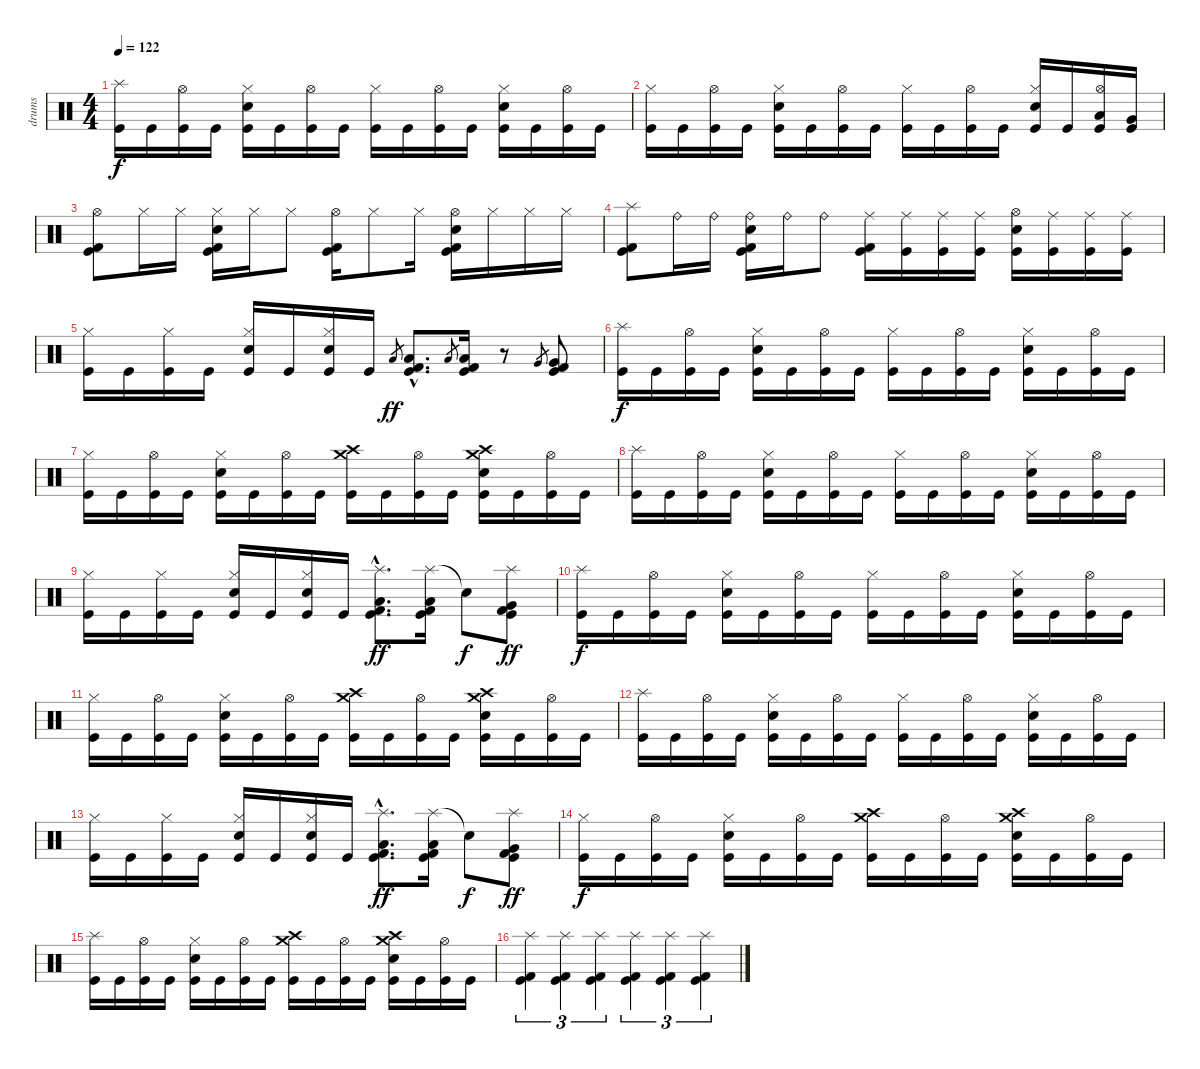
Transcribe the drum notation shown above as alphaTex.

\track ("drums" "drums") {instrument percussion}
\staff {score}
\articulation defaults
\ts (4 4)
\tempo 122
\clef neutral
\ks c
("Splash (hit)" "Kick (hit)").16{dy f} "Kick (hit)".16 ("Hi-Hat (open)" "Kick (hit)").16 "Kick (hit)".16 ("Hi-Hat (closed)" "Electric Snare (hit)" "Kick (hit)").16 "Kick (hit)".16 ("Hi-Hat (open)" "Kick (hit)").16 "Kick (hit)".16 ("Hi-Hat (closed)" "Kick (hit)").16 "Kick (hit)".16 ("Hi-Hat (open)" "Kick (hit)").16 "Kick (hit)".16 ("Hi-Hat (closed)" "Electric Snare (hit)" "Kick (hit)").16 "Kick (hit)".16 ("Hi-Hat (open)" "Kick (hit)").16 "Kick (hit)".16 |
("Hi-Hat (closed)" "Kick (hit)").16 "Kick (hit)".16 ("Hi-Hat (open)" "Kick (hit)").16 "Kick (hit)".16 ("Hi-Hat (closed)" "Electric Snare (hit)" "Kick (hit)").16 "Kick (hit)".16 ("Hi-Hat (open)" "Kick (hit)").16 "Kick (hit)".16 ("Hi-Hat (closed)" "Kick (hit)").16 "Kick (hit)".16 ("Hi-Hat (open)" "Kick (hit)").16 "Kick (hit)".16 ("Hi-Hat (closed)" "Electric Snare (hit)" "Kick (hit)").16 "Kick (hit)".16 ("Hi-Hat (open)" "Low Floor Tom (hit)" "Kick (hit)").16 ("Very Low Tom (hit)" "Kick (hit)").16 |
("Hi-Hat (open)" "Kick (hit) 2" "Kick (hit)").8 "Hi-Hat (closed)".16 "Hi-Hat (closed)".16 ("Hi-Hat (closed)" "Electric Snare (hit)" "Kick (hit) 2" "Kick (hit)").16 "Hi-Hat (closed)".16 "Hi-Hat (closed)".8 ("Hi-Hat (open)" "Kick (hit) 2" "Kick (hit)").16 "Hi-Hat (closed)".8 "Hi-Hat (closed)".16 ("Hi-Hat (open)" "Electric Snare (hit)" "Kick (hit) 2" "Kick (hit)").16 "Hi-Hat (closed)".16 "Hi-Hat (closed)".16 "Hi-Hat (closed)".16 |
("Splash (hit)" "Kick (hit) 2" "Kick (hit)").8 "Ride (bell)".16 "Ride (bell)".16 ("Ride (bell)" "Electric Snare (hit)" "Kick (hit) 2" "Kick (hit)").16 "Ride (bell)".16 "Ride (bell)".8 ("Ride (middle)" "Kick (hit) 2" "Kick (hit)").16 ("Ride (middle)" "Kick (hit)").16 ("Ride (middle)" "Kick (hit)").16 ("Ride (middle)" "Kick (hit)").16 ("Hi-Hat (open)" "Electric Snare (hit)" "Kick (hit)").16 ("Ride (middle)" "Kick (hit)").16 ("Ride (middle)" "Kick (hit)").16 ("Ride (middle)" "Kick (hit)").16 |
("Hi-Hat (closed)" "Kick (hit)").16 "Kick (hit)".16 ("Hi-Hat (closed)" "Kick (hit)").16 "Kick (hit)".16 ("Hi-Hat (closed)" "Electric Snare (hit)" "Kick (hit)").16 "Kick (hit)".16 ("Hi-Hat (closed)" "Electric Snare (hit)" "Kick (hit)").16 "Kick (hit)".16 "Low Tom (hit)".8{gr dy ff} ("Low Tom (hit)"{hac} "Kick (hit) 2"{hac} "Kick (hit)"{hac}).8{d} "Low Floor Tom (hit)".8{gr} ("Low Floor Tom (hit)" "Kick (hit) 2" "Kick (hit)").16 r.8 "Very Low Tom (hit)".8{gr} ("Very Low Tom (hit)" "Kick (hit) 2" "Kick (hit)").8 |
("Splash (hit)" "Kick (hit)").16{dy f} "Kick (hit)".16 ("Hi-Hat (open)" "Kick (hit)").16 "Kick (hit)".16 ("Hi-Hat (closed)" "Electric Snare (hit)" "Kick (hit)").16 "Kick (hit)".16 ("Hi-Hat (open)" "Kick (hit)").16 "Kick (hit)".16 ("Hi-Hat (closed)" "Kick (hit)").16 "Kick (hit)".16 ("Hi-Hat (open)" "Kick (hit)").16 "Kick (hit)".16 ("Hi-Hat (closed)" "Electric Snare (hit)" "Kick (hit)").16 "Kick (hit)".16 ("Hi-Hat (open)" "Kick (hit)").16 "Kick (hit)".16 |
("Hi-Hat (closed)" "Kick (hit)").16 "Kick (hit)".16 ("Hi-Hat (open)" "Kick (hit)").16 "Kick (hit)".16 ("Hi-Hat (closed)" "Electric Snare (hit)" "Kick (hit)").16 "Kick (hit)".16 ("Hi-Hat (open)" "Kick (hit)").16 "Kick (hit)".16 ("Crash medium (hit)" "Crash high (hit)" "Kick (hit)").16 "Kick (hit)".16 ("Hi-Hat (open)" "Kick (hit)").16 "Kick (hit)".16 ("Crash high (hit)" "Crash medium (hit)" "Electric Snare (hit)" "Kick (hit)").16 "Kick (hit)".16 ("Hi-Hat (open)" "Kick (hit)").16 "Kick (hit)".16 |
("Splash (hit)" "Kick (hit)").16 "Kick (hit)".16 ("Hi-Hat (open)" "Kick (hit)").16 "Kick (hit)".16 ("Hi-Hat (closed)" "Electric Snare (hit)" "Kick (hit)").16 "Kick (hit)".16 ("Hi-Hat (open)" "Kick (hit)").16 "Kick (hit)".16 ("Hi-Hat (closed)" "Kick (hit)").16 "Kick (hit)".16 ("Hi-Hat (open)" "Kick (hit)").16 "Kick (hit)".16 ("Hi-Hat (closed)" "Electric Snare (hit)" "Kick (hit)").16 "Kick (hit)".16 ("Hi-Hat (open)" "Kick (hit)").16 "Kick (hit)".16 |
("Hi-Hat (closed)" "Kick (hit)").16 "Kick (hit)".16 ("Hi-Hat (closed)" "Kick (hit)").16 "Kick (hit)".16 ("Hi-Hat (closed)" "Electric Snare (hit)" "Kick (hit)").16 "Kick (hit)".16 ("Hi-Hat (closed)" "Electric Snare (hit)" "Kick (hit)").16 "Kick (hit)".16 ("Splash (hit)"{hac} "Low Tom (hit)"{hac} "Kick (hit) 2"{hac} "Kick (hit)"{hac}).8{d dy ff} ("Splash (hit)" "Low Floor Tom (hit)" "Kick (hit) 2" "Kick (hit)").16 "Snare (hit)"{t}.8{dy f} ("Splash (hit)" "Very Low Tom (hit)" "Kick (hit) 2" "Kick (hit)").8{dy ff} |
("Splash (hit)" "Kick (hit)").16{dy f} "Kick (hit)".16 ("Hi-Hat (open)" "Kick (hit)").16 "Kick (hit)".16 ("Hi-Hat (closed)" "Electric Snare (hit)" "Kick (hit)").16 "Kick (hit)".16 ("Hi-Hat (open)" "Kick (hit)").16 "Kick (hit)".16 ("Hi-Hat (closed)" "Kick (hit)").16 "Kick (hit)".16 ("Hi-Hat (open)" "Kick (hit)").16 "Kick (hit)".16 ("Hi-Hat (closed)" "Electric Snare (hit)" "Kick (hit)").16 "Kick (hit)".16 ("Hi-Hat (open)" "Kick (hit)").16 "Kick (hit)".16 |
("Hi-Hat (closed)" "Kick (hit)").16 "Kick (hit)".16 ("Hi-Hat (open)" "Kick (hit)").16 "Kick (hit)".16 ("Hi-Hat (closed)" "Electric Snare (hit)" "Kick (hit)").16 "Kick (hit)".16 ("Hi-Hat (open)" "Kick (hit)").16 "Kick (hit)".16 ("Crash medium (hit)" "Crash high (hit)" "Kick (hit)").16 "Kick (hit)".16 ("Hi-Hat (open)" "Kick (hit)").16 "Kick (hit)".16 ("Crash high (hit)" "Crash medium (hit)" "Electric Snare (hit)" "Kick (hit)").16 "Kick (hit)".16 ("Hi-Hat (open)" "Kick (hit)").16 "Kick (hit)".16 |
("Splash (hit)" "Kick (hit)").16 "Kick (hit)".16 ("Hi-Hat (open)" "Kick (hit)").16 "Kick (hit)".16 ("Hi-Hat (closed)" "Electric Snare (hit)" "Kick (hit)").16 "Kick (hit)".16 ("Hi-Hat (open)" "Kick (hit)").16 "Kick (hit)".16 ("Hi-Hat (closed)" "Kick (hit)").16 "Kick (hit)".16 ("Hi-Hat (open)" "Kick (hit)").16 "Kick (hit)".16 ("Hi-Hat (closed)" "Electric Snare (hit)" "Kick (hit)").16 "Kick (hit)".16 ("Hi-Hat (open)" "Kick (hit)").16 "Kick (hit)".16 |
("Hi-Hat (closed)" "Kick (hit)").16 "Kick (hit)".16 ("Hi-Hat (closed)" "Kick (hit)").16 "Kick (hit)".16 ("Hi-Hat (closed)" "Electric Snare (hit)" "Kick (hit)").16 "Kick (hit)".16 ("Hi-Hat (closed)" "Electric Snare (hit)" "Kick (hit)").16 "Kick (hit)".16 ("Splash (hit)"{hac} "Low Tom (hit)"{hac} "Kick (hit) 2"{hac} "Kick (hit)"{hac}).8{d dy ff} ("Splash (hit)" "Low Floor Tom (hit)" "Kick (hit) 2" "Kick (hit)").16 "Snare (hit)"{t}.8{dy f} ("Splash (hit)" "Very Low Tom (hit)" "Kick (hit) 2" "Kick (hit)").8{dy ff} |
("Hi-Hat (closed)" "Kick (hit)").16{dy f} "Kick (hit)".16 ("Hi-Hat (open)" "Kick (hit)").16 "Kick (hit)".16 ("Hi-Hat (closed)" "Electric Snare (hit)" "Kick (hit)").16 "Kick (hit)".16 ("Hi-Hat (open)" "Kick (hit)").16 "Kick (hit)".16 ("Crash medium (hit)" "Crash high (hit)" "Kick (hit)").16 "Kick (hit)".16 ("Hi-Hat (open)" "Kick (hit)").16 "Kick (hit)".16 ("Crash high (hit)" "Crash medium (hit)" "Electric Snare (hit)" "Kick (hit)").16 "Kick (hit)".16 ("Hi-Hat (open)" "Kick (hit)").16 "Kick (hit)".16 |
("Splash (hit)" "Kick (hit)").16 "Kick (hit)".16 ("Hi-Hat (open)" "Kick (hit)").16 "Kick (hit)".16 ("Hi-Hat (closed)" "Electric Snare (hit)" "Kick (hit)").16 "Kick (hit)".16 ("Hi-Hat (open)" "Kick (hit)").16 "Kick (hit)".16 ("Crash high (hit)" "Crash medium (hit)" "Kick (hit)").16 "Kick (hit)".16 ("Hi-Hat (open)" "Kick (hit)").16 "Kick (hit)".16 ("Crash high (hit)" "Crash medium (hit)" "Electric Snare (hit)" "Kick (hit)").16 "Kick (hit)".16 ("Hi-Hat (open)" "Kick (hit)").16 "Kick (hit)".16 |
("Splash (hit)" "Kick (hit) 2" "Kick (hit)").4{tu (3 2)} ("Splash (hit)" "Kick (hit) 2" "Kick (hit)").4{tu (3 2)} ("Splash (hit)" "Kick (hit) 2" "Kick (hit)").4{tu (3 2)} ("Splash (hit)" "Kick (hit) 2" "Kick (hit)").4{tu (3 2)} ("Splash (hit)" "Kick (hit) 2" "Kick (hit)").4{tu (3 2)} ("Splash (hit)" "Kick (hit) 2" "Kick (hit)").4{tu (3 2)}
